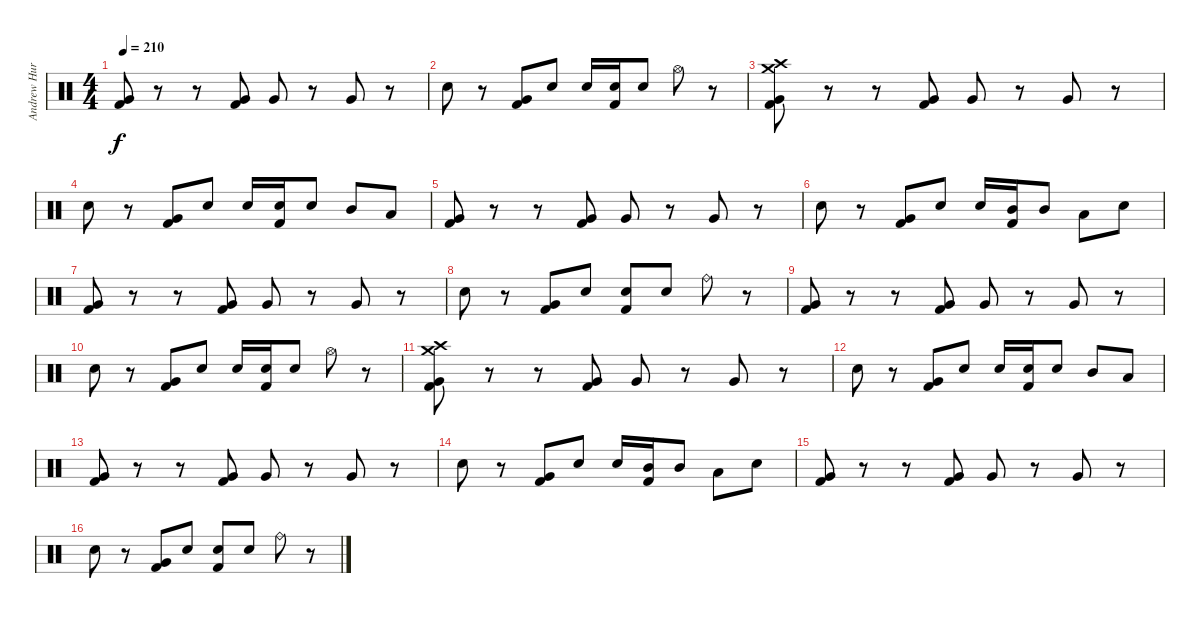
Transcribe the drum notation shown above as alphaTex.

\track ("Andrew Hurley (Drums)" "Andrew Hur") {instrument percussion}
\staff {score}
\articulation defaults
\ts (4 4)
\tempo 210
\clef neutral
\ks c
("Very Low Tom (hit)" "Kick (hit) 2").8{dy f volume 8} r.8 r.8 ("Very Low Tom (hit)" "Kick (hit) 2").8 "Very Low Tom (hit)".8 r.8 "Very Low Tom (hit)".8 r.8 |
"Electric Snare (hit)".8{volume 8} r.8 ("Very Low Tom (hit)" "Kick (hit) 2").8 "Electric Snare (hit)".8 "Electric Snare (hit)".16 ("Electric Snare (hit)" "Kick (hit) 2").16 "Electric Snare (hit)".8 "Hi-Hat (open)".8 r.8 |
("Crash medium (hit)" "Crash high (hit)" "Very Low Tom (hit)" "Kick (hit) 2").8 r.8{volume 8} r.8 ("Very Low Tom (hit)" "Kick (hit) 2").8 "Very Low Tom (hit)".8 r.8 "Very Low Tom (hit)".8 r.8 |
"Electric Snare (hit)".8{volume 8} r.8 ("Very Low Tom (hit)" "Kick (hit) 2").8 "Electric Snare (hit)".8 "Electric Snare (hit)".16 ("Electric Snare (hit)" "Kick (hit) 2").16 "Electric Snare (hit)".8 "Mid Tom (hit)".8 "Low Tom (hit)".8 |
("Very Low Tom (hit)" "Kick (hit) 2").8{volume 8} r.8 r.8 ("Very Low Tom (hit)" "Kick (hit) 2").8 "Very Low Tom (hit)".8 r.8 "Very Low Tom (hit)".8 r.8 |
"Electric Snare (hit)".8{volume 8} r.8 ("Very Low Tom (hit)" "Kick (hit) 2").8 "Electric Snare (hit)".8 "Electric Snare (hit)".16 ("Mid Tom (hit)" "Kick (hit) 2").16 "Mid Tom (hit)".8 "Low Tom (hit)".8 "Electric Snare (hit)".8 |
("Very Low Tom (hit)" "Kick (hit) 2").8{volume 8} r.8 r.8 ("Very Low Tom (hit)" "Kick (hit) 2").8 "Very Low Tom (hit)".8 r.8 "Very Low Tom (hit)".8 r.8 |
"Electric Snare (hit)".8{volume 8} r.8 ("Very Low Tom (hit)" "Kick (hit) 2").8 "Electric Snare (hit)".8 ("Electric Snare (hit)" "Kick (hit) 2").8 "Electric Snare (hit)".8 "Ride (bell)".8 r.8 |
("Very Low Tom (hit)" "Kick (hit) 2").8{volume 8} r.8 r.8 ("Very Low Tom (hit)" "Kick (hit) 2").8 "Very Low Tom (hit)".8 r.8 "Very Low Tom (hit)".8 r.8 |
"Electric Snare (hit)".8{volume 8} r.8 ("Very Low Tom (hit)" "Kick (hit) 2").8 "Electric Snare (hit)".8 "Electric Snare (hit)".16 ("Electric Snare (hit)" "Kick (hit) 2").16 "Electric Snare (hit)".8 "Hi-Hat (open)".8 r.8 |
("Crash medium (hit)" "Crash high (hit)" "Very Low Tom (hit)" "Kick (hit) 2").8 r.8{volume 8} r.8 ("Very Low Tom (hit)" "Kick (hit) 2").8 "Very Low Tom (hit)".8 r.8 "Very Low Tom (hit)".8 r.8 |
"Electric Snare (hit)".8{volume 8} r.8 ("Very Low Tom (hit)" "Kick (hit) 2").8 "Electric Snare (hit)".8 "Electric Snare (hit)".16 ("Electric Snare (hit)" "Kick (hit) 2").16 "Electric Snare (hit)".8 "Mid Tom (hit)".8 "Low Tom (hit)".8 |
("Very Low Tom (hit)" "Kick (hit) 2").8{volume 8} r.8 r.8 ("Very Low Tom (hit)" "Kick (hit) 2").8 "Very Low Tom (hit)".8 r.8 "Very Low Tom (hit)".8 r.8 |
"Electric Snare (hit)".8{volume 8} r.8 ("Very Low Tom (hit)" "Kick (hit) 2").8 "Electric Snare (hit)".8 "Electric Snare (hit)".16 ("Mid Tom (hit)" "Kick (hit) 2").16 "Mid Tom (hit)".8 "Low Tom (hit)".8 "Electric Snare (hit)".8 |
("Very Low Tom (hit)" "Kick (hit) 2").8{volume 8} r.8 r.8 ("Very Low Tom (hit)" "Kick (hit) 2").8 "Very Low Tom (hit)".8 r.8 "Very Low Tom (hit)".8 r.8 |
"Electric Snare (hit)".8{volume 8} r.8 ("Very Low Tom (hit)" "Kick (hit) 2").8 "Electric Snare (hit)".8 ("Electric Snare (hit)" "Kick (hit) 2").8 "Electric Snare (hit)".8 "Ride (bell)".8 r.8
